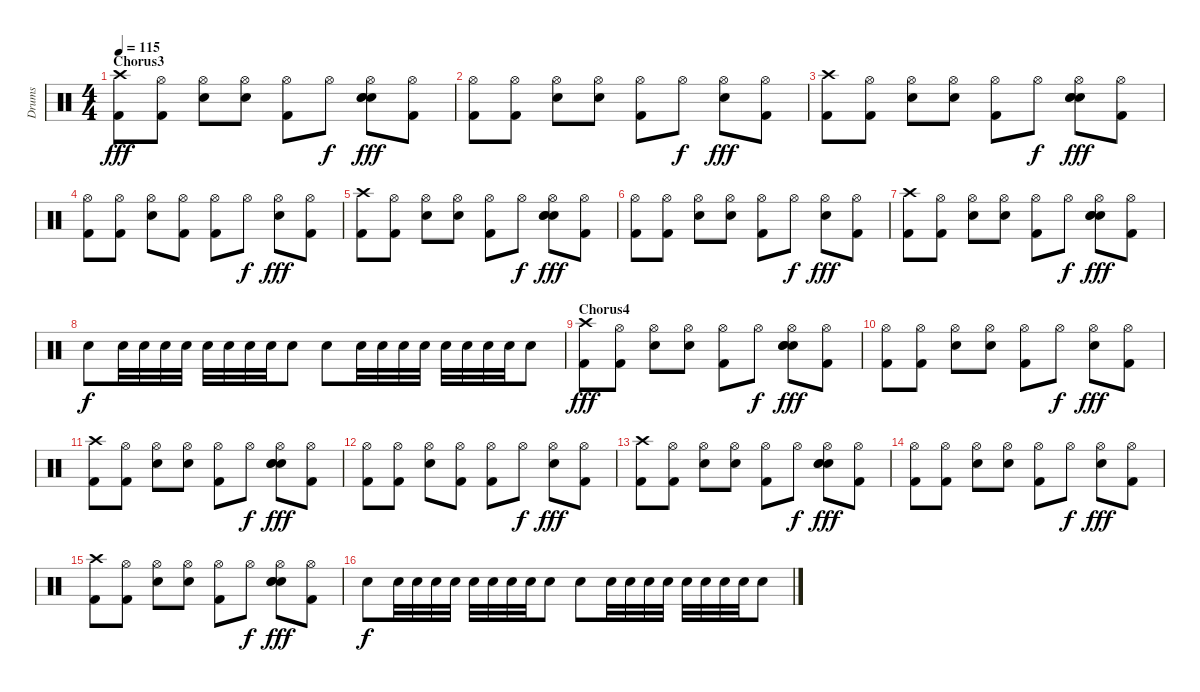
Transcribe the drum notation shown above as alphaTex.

\track ("Drums" "Drums") {instrument percussion}
\staff {score}
\articulation defaults
\ts (4 4)
\section ("" "Chorus3")
\tempo 115
\clef neutral
\ks c
("Crash high (hit)" "Kick (hit) 2").8{dy fff} ("Hi-Hat (open)" "Kick (hit) 2").8 ("Hi-Hat (open)" "Electric Snare (hit)").8 ("Hi-Hat (open)" "Electric Snare (hit)").8 ("Hi-Hat (open)" "Kick (hit) 2").8 "Hi-Hat (open)".8{dy f} ("Hi-Hat (open)" "Electric Snare (hit)" "Hand Clap (hit)" "Hand Clap (hit)").8{dy fff} ("Hi-Hat (open)" "Kick (hit) 2").8 |
("Hi-Hat (open)" "Kick (hit) 2").8 ("Hi-Hat (open)" "Kick (hit) 2").8 ("Hi-Hat (open)" "Electric Snare (hit)").8 ("Hi-Hat (open)" "Electric Snare (hit)").8 ("Hi-Hat (open)" "Kick (hit) 2").8 "Hi-Hat (open)".8{dy f} ("Hi-Hat (open)" "Electric Snare (hit)").8{dy fff} ("Hi-Hat (open)" "Kick (hit) 2").8 |
("Crash high (hit)" "Kick (hit) 2").8 ("Hi-Hat (open)" "Kick (hit) 2").8 ("Hi-Hat (open)" "Electric Snare (hit)").8 ("Hi-Hat (open)" "Electric Snare (hit)").8 ("Hi-Hat (open)" "Kick (hit) 2").8 "Hi-Hat (open)".8{dy f} ("Hi-Hat (open)" "Electric Snare (hit)" "Hand Clap (hit)" "Hand Clap (hit)").8{dy fff} ("Hi-Hat (open)" "Kick (hit) 2").8 |
("Hi-Hat (open)" "Kick (hit) 2").8 ("Hi-Hat (open)" "Kick (hit) 2").8 ("Hi-Hat (open)" "Electric Snare (hit)").8 ("Hi-Hat (open)" "Kick (hit) 2").8 ("Hi-Hat (open)" "Kick (hit) 2").8 "Hi-Hat (open)".8{dy f} ("Hi-Hat (open)" "Electric Snare (hit)").8{dy fff} ("Hi-Hat (open)" "Kick (hit) 2").8 |
("Crash high (hit)" "Kick (hit) 2").8 ("Hi-Hat (open)" "Kick (hit) 2").8 ("Hi-Hat (open)" "Electric Snare (hit)").8 ("Hi-Hat (open)" "Electric Snare (hit)").8 ("Hi-Hat (open)" "Kick (hit) 2").8 "Hi-Hat (open)".8{dy f} ("Hi-Hat (open)" "Electric Snare (hit)" "Hand Clap (hit)" "Hand Clap (hit)").8{dy fff} ("Hi-Hat (open)" "Kick (hit) 2").8 |
("Hi-Hat (open)" "Kick (hit) 2").8 ("Hi-Hat (open)" "Kick (hit) 2").8 ("Hi-Hat (open)" "Electric Snare (hit)").8 ("Hi-Hat (open)" "Electric Snare (hit)").8 ("Hi-Hat (open)" "Kick (hit) 2").8 "Hi-Hat (open)".8{dy f} ("Hi-Hat (open)" "Electric Snare (hit)").8{dy fff} ("Hi-Hat (open)" "Kick (hit) 2").8 |
("Crash high (hit)" "Kick (hit) 2").8 ("Hi-Hat (open)" "Kick (hit) 2").8 ("Hi-Hat (open)" "Electric Snare (hit)").8 ("Hi-Hat (open)" "Electric Snare (hit)").8 ("Hi-Hat (open)" "Kick (hit) 2").8 "Hi-Hat (open)".8{dy f} ("Hi-Hat (open)" "Electric Snare (hit)" "Hand Clap (hit)" "Hand Clap (hit)").8{dy fff} ("Hi-Hat (open)" "Kick (hit) 2").8 |
"Electric Snare (hit)".8{dy f} "Electric Snare (hit)".32 "Electric Snare (hit)".32 "Electric Snare (hit)".32 "Electric Snare (hit)".32 "Electric Snare (hit)".32 "Electric Snare (hit)".32 "Electric Snare (hit)".32 "Electric Snare (hit)".32 "Electric Snare (hit)".8 "Electric Snare (hit)".8 "Electric Snare (hit)".32 "Electric Snare (hit)".32 "Electric Snare (hit)".32 "Electric Snare (hit)".32 "Electric Snare (hit)".32 "Electric Snare (hit)".32 "Electric Snare (hit)".32 "Electric Snare (hit)".32 "Electric Snare (hit)".8 |
\section ("" "Chorus4")
("Crash high (hit)" "Kick (hit) 2").8{dy fff} ("Hi-Hat (open)" "Kick (hit) 2").8 ("Hi-Hat (open)" "Electric Snare (hit)").8 ("Hi-Hat (open)" "Electric Snare (hit)").8 ("Hi-Hat (open)" "Kick (hit) 2").8 "Hi-Hat (open)".8{dy f} ("Hi-Hat (open)" "Electric Snare (hit)" "Hand Clap (hit)" "Hand Clap (hit)").8{dy fff} ("Hi-Hat (open)" "Kick (hit) 2").8 |
("Hi-Hat (open)" "Kick (hit) 2").8 ("Hi-Hat (open)" "Kick (hit) 2").8 ("Hi-Hat (open)" "Electric Snare (hit)").8 ("Hi-Hat (open)" "Electric Snare (hit)").8 ("Hi-Hat (open)" "Kick (hit) 2").8 "Hi-Hat (open)".8{dy f} ("Hi-Hat (open)" "Electric Snare (hit)").8{dy fff} ("Hi-Hat (open)" "Kick (hit) 2").8 |
("Crash high (hit)" "Kick (hit) 2").8 ("Hi-Hat (open)" "Kick (hit) 2").8 ("Hi-Hat (open)" "Electric Snare (hit)").8 ("Hi-Hat (open)" "Electric Snare (hit)").8 ("Hi-Hat (open)" "Kick (hit) 2").8 "Hi-Hat (open)".8{dy f} ("Hi-Hat (open)" "Electric Snare (hit)" "Hand Clap (hit)" "Hand Clap (hit)").8{dy fff} ("Hi-Hat (open)" "Kick (hit) 2").8 |
("Hi-Hat (open)" "Kick (hit) 2").8 ("Hi-Hat (open)" "Kick (hit) 2").8 ("Hi-Hat (open)" "Electric Snare (hit)").8 ("Hi-Hat (open)" "Kick (hit) 2").8 ("Hi-Hat (open)" "Kick (hit) 2").8 "Hi-Hat (open)".8{dy f} ("Hi-Hat (open)" "Electric Snare (hit)").8{dy fff} ("Hi-Hat (open)" "Kick (hit) 2").8 |
("Crash high (hit)" "Kick (hit) 2").8 ("Hi-Hat (open)" "Kick (hit) 2").8 ("Hi-Hat (open)" "Electric Snare (hit)").8 ("Hi-Hat (open)" "Electric Snare (hit)").8 ("Hi-Hat (open)" "Kick (hit) 2").8 "Hi-Hat (open)".8{dy f} ("Hi-Hat (open)" "Electric Snare (hit)" "Hand Clap (hit)" "Hand Clap (hit)").8{dy fff} ("Hi-Hat (open)" "Kick (hit) 2").8 |
("Hi-Hat (open)" "Kick (hit) 2").8 ("Hi-Hat (open)" "Kick (hit) 2").8 ("Hi-Hat (open)" "Electric Snare (hit)").8 ("Hi-Hat (open)" "Electric Snare (hit)").8 ("Hi-Hat (open)" "Kick (hit) 2").8 "Hi-Hat (open)".8{dy f} ("Hi-Hat (open)" "Electric Snare (hit)").8{dy fff} ("Hi-Hat (open)" "Kick (hit) 2").8 |
("Crash high (hit)" "Kick (hit) 2").8 ("Hi-Hat (open)" "Kick (hit) 2").8 ("Hi-Hat (open)" "Electric Snare (hit)").8 ("Hi-Hat (open)" "Electric Snare (hit)").8 ("Hi-Hat (open)" "Kick (hit) 2").8 "Hi-Hat (open)".8{dy f} ("Hi-Hat (open)" "Electric Snare (hit)" "Hand Clap (hit)" "Hand Clap (hit)").8{dy fff} ("Hi-Hat (open)" "Kick (hit) 2").8 |
"Electric Snare (hit)".8{dy f} "Electric Snare (hit)".32 "Electric Snare (hit)".32 "Electric Snare (hit)".32 "Electric Snare (hit)".32 "Electric Snare (hit)".32 "Electric Snare (hit)".32 "Electric Snare (hit)".32 "Electric Snare (hit)".32 "Electric Snare (hit)".8 "Electric Snare (hit)".8 "Electric Snare (hit)".32 "Electric Snare (hit)".32 "Electric Snare (hit)".32 "Electric Snare (hit)".32 "Electric Snare (hit)".32 "Electric Snare (hit)".32 "Electric Snare (hit)".32 "Electric Snare (hit)".32 "Electric Snare (hit)".8
